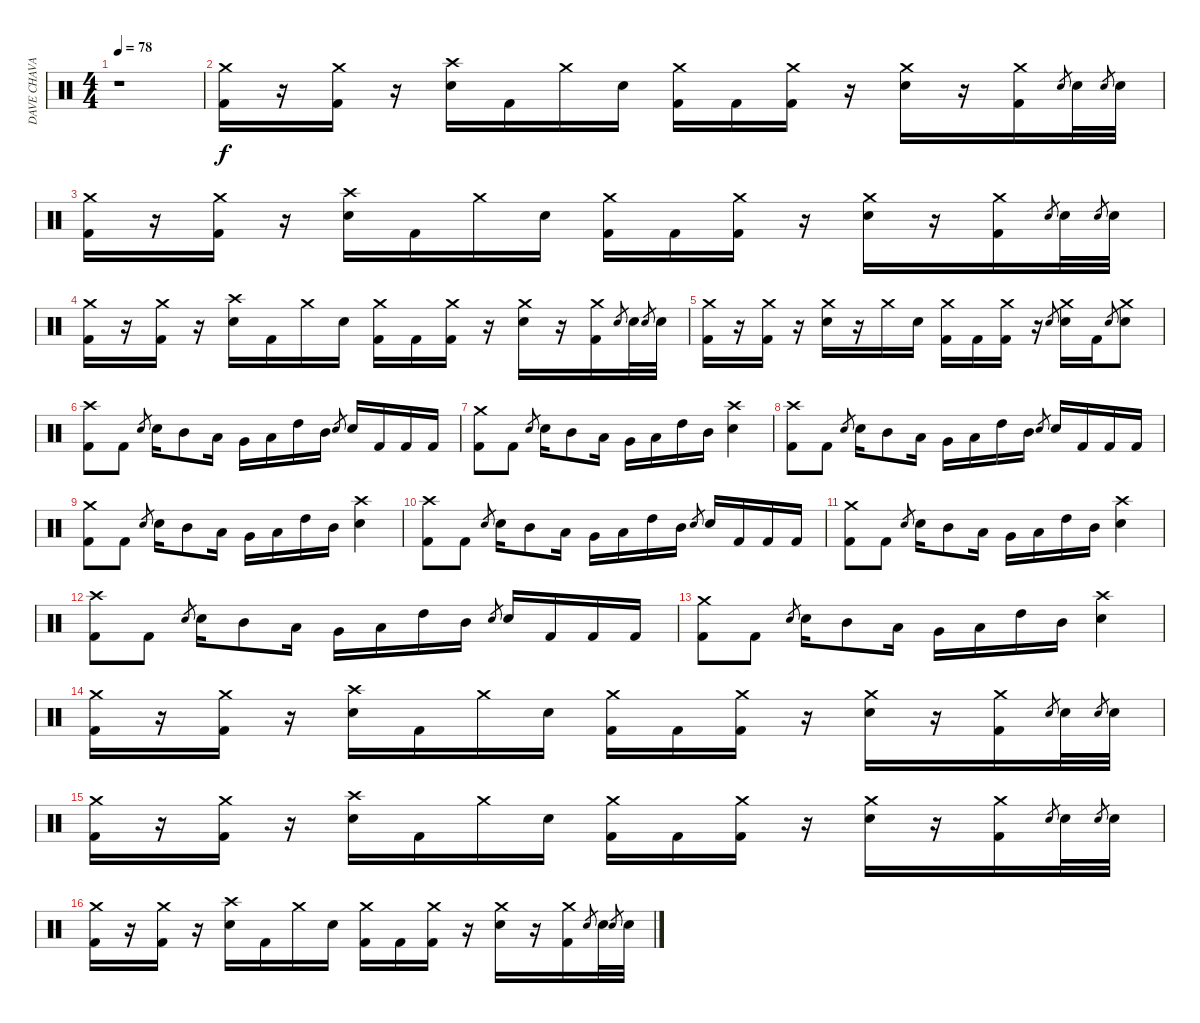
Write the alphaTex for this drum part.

\track ("DAVE CHAVARRI" "DAVE CHAVA") {instrument percussion}
\staff {score}
\articulation defaults
\ts (4 4)
\tempo 78
\clef neutral
\ks c
r.1{dy f} |
("Crash medium (hit)" "Kick (hit) 2").16 r.16 ("Crash medium (hit)" "Kick (hit) 2").16 r.16 ("Crash high (hit)" "Electric Snare (hit)").16 "Kick (hit) 2".16 "Crash medium (hit)".16 "Electric Snare (hit)".16 ("Crash medium (hit)" "Kick (hit) 2").16 "Kick (hit) 2".16 ("Crash medium (hit)" "Kick (hit) 2").16 r.16 ("Crash medium (hit)" "Electric Snare (hit)").16 r.16 ("Crash medium (hit)" "Kick (hit) 2").16 "Electric Snare (hit)".8{gr} "Electric Snare (hit)".32 "Electric Snare (hit)".8{gr} "Electric Snare (hit)".32 |
("Crash medium (hit)" "Kick (hit) 2").16 r.16 ("Crash medium (hit)" "Kick (hit) 2").16 r.16 ("Crash high (hit)" "Electric Snare (hit)").16 "Kick (hit) 2".16 "Crash medium (hit)".16 "Electric Snare (hit)".16 ("Crash medium (hit)" "Kick (hit) 2").16 "Kick (hit) 2".16 ("Crash medium (hit)" "Kick (hit) 2").16 r.16 ("Crash medium (hit)" "Electric Snare (hit)").16 r.16 ("Crash medium (hit)" "Kick (hit) 2").16 "Electric Snare (hit)".8{gr} "Electric Snare (hit)".32 "Electric Snare (hit)".8{gr} "Electric Snare (hit)".32 |
("Crash medium (hit)" "Kick (hit) 2").16 r.16 ("Crash medium (hit)" "Kick (hit) 2").16 r.16 ("Crash high (hit)" "Electric Snare (hit)").16 "Kick (hit) 2".16 "Crash medium (hit)".16 "Electric Snare (hit)".16 ("Crash medium (hit)" "Kick (hit) 2").16 "Kick (hit) 2".16 ("Crash medium (hit)" "Kick (hit) 2").16 r.16 ("Crash medium (hit)" "Electric Snare (hit)").16 r.16 ("Crash medium (hit)" "Kick (hit) 2").16 "Electric Snare (hit)".8{gr} "Electric Snare (hit)".32 "Electric Snare (hit)".8{gr} "Electric Snare (hit)".32 |
("Crash medium (hit)" "Kick (hit) 2").16 r.16 ("Crash medium (hit)" "Kick (hit) 2").16 r.16 ("Crash medium (hit)" "Electric Snare (hit)").16 r.16 "Crash medium (hit)".16 "Electric Snare (hit)".16 ("Crash medium (hit)" "Kick (hit) 2").16 "Kick (hit) 2".16 ("Crash medium (hit)" "Kick (hit) 2").16 r.16 "Electric Snare (hit)".8{gr} ("Crash medium (hit)" "Electric Snare (hit)").16 "Kick (hit) 2".16 "Electric Snare (hit)".8{gr} ("Crash medium (hit)" "Electric Snare (hit)").8 |
("Crash high (hit)" "Kick (hit) 2").8 "Kick (hit) 2".8 "Electric Snare (hit)".8{gr} "Electric Snare (hit)".16 "Mid Tom (hit)".8 "Low Tom (hit)".16 "Very Low Tom (hit)".16 "Low Floor Tom (hit)".16 "High Tom (hit)".16 "Mid Tom (hit)".16 "Electric Snare (hit)".8{gr} "Electric Snare (hit)".16 "Kick (hit) 2".16 "Kick (hit) 2".16 "Kick (hit) 2".16 |
("Crash medium (hit)" "Kick (hit) 2").8 "Kick (hit) 2".8 "Electric Snare (hit)".8{gr} "Electric Snare (hit)".16 "Mid Tom (hit)".8 "Low Tom (hit)".16 "Very Low Tom (hit)".16 "Low Floor Tom (hit)".16 "High Tom (hit)".16 "Mid Tom (hit)".16 ("Crash high (hit)" "Electric Snare (hit)").4 |
("Crash high (hit)" "Kick (hit) 2").8 "Kick (hit) 2".8 "Electric Snare (hit)".8{gr} "Electric Snare (hit)".16 "Mid Tom (hit)".8 "Low Tom (hit)".16 "Very Low Tom (hit)".16 "Low Floor Tom (hit)".16 "High Tom (hit)".16 "Mid Tom (hit)".16 "Electric Snare (hit)".8{gr} "Electric Snare (hit)".16 "Kick (hit) 2".16 "Kick (hit) 2".16 "Kick (hit) 2".16 |
("Crash medium (hit)" "Kick (hit) 2").8 "Kick (hit) 2".8 "Electric Snare (hit)".8{gr} "Electric Snare (hit)".16 "Mid Tom (hit)".8 "Low Tom (hit)".16 "Very Low Tom (hit)".16 "Low Floor Tom (hit)".16 "High Tom (hit)".16 "Mid Tom (hit)".16 ("Crash high (hit)" "Electric Snare (hit)").4 |
("Crash high (hit)" "Kick (hit) 2").8 "Kick (hit) 2".8 "Electric Snare (hit)".8{gr} "Electric Snare (hit)".16 "Mid Tom (hit)".8 "Low Tom (hit)".16 "Very Low Tom (hit)".16 "Low Floor Tom (hit)".16 "High Tom (hit)".16 "Mid Tom (hit)".16 "Electric Snare (hit)".8{gr} "Electric Snare (hit)".16 "Kick (hit) 2".16 "Kick (hit) 2".16 "Kick (hit) 2".16 |
("Crash medium (hit)" "Kick (hit) 2").8 "Kick (hit) 2".8 "Electric Snare (hit)".8{gr} "Electric Snare (hit)".16 "Mid Tom (hit)".8 "Low Tom (hit)".16 "Very Low Tom (hit)".16 "Low Floor Tom (hit)".16 "High Tom (hit)".16 "Mid Tom (hit)".16 ("Crash high (hit)" "Electric Snare (hit)").4 |
("Crash high (hit)" "Kick (hit) 2").8 "Kick (hit) 2".8 "Electric Snare (hit)".8{gr} "Electric Snare (hit)".16 "Mid Tom (hit)".8 "Low Tom (hit)".16 "Very Low Tom (hit)".16 "Low Floor Tom (hit)".16 "High Tom (hit)".16 "Mid Tom (hit)".16 "Electric Snare (hit)".8{gr} "Electric Snare (hit)".16 "Kick (hit) 2".16 "Kick (hit) 2".16 "Kick (hit) 2".16 |
("Crash medium (hit)" "Kick (hit) 2").8 "Kick (hit) 2".8 "Electric Snare (hit)".8{gr} "Electric Snare (hit)".16 "Mid Tom (hit)".8 "Low Tom (hit)".16 "Very Low Tom (hit)".16 "Low Floor Tom (hit)".16 "High Tom (hit)".16 "Mid Tom (hit)".16 ("Crash high (hit)" "Electric Snare (hit)").4 |
("Crash medium (hit)" "Kick (hit) 2").16 r.16 ("Crash medium (hit)" "Kick (hit) 2").16 r.16 ("Crash high (hit)" "Electric Snare (hit)").16 "Kick (hit) 2".16 "Crash medium (hit)".16 "Electric Snare (hit)".16 ("Crash medium (hit)" "Kick (hit) 2").16 "Kick (hit) 2".16 ("Crash medium (hit)" "Kick (hit) 2").16 r.16 ("Crash medium (hit)" "Electric Snare (hit)").16 r.16 ("Crash medium (hit)" "Kick (hit) 2").16 "Electric Snare (hit)".8{gr} "Electric Snare (hit)".32 "Electric Snare (hit)".8{gr} "Electric Snare (hit)".32 |
("Crash medium (hit)" "Kick (hit) 2").16 r.16 ("Crash medium (hit)" "Kick (hit) 2").16 r.16 ("Crash high (hit)" "Electric Snare (hit)").16 "Kick (hit) 2".16 "Crash medium (hit)".16 "Electric Snare (hit)".16 ("Crash medium (hit)" "Kick (hit) 2").16 "Kick (hit) 2".16 ("Crash medium (hit)" "Kick (hit) 2").16 r.16 ("Crash medium (hit)" "Electric Snare (hit)").16 r.16 ("Crash medium (hit)" "Kick (hit) 2").16 "Electric Snare (hit)".8{gr} "Electric Snare (hit)".32 "Electric Snare (hit)".8{gr} "Electric Snare (hit)".32 |
("Crash medium (hit)" "Kick (hit) 2").16 r.16 ("Crash medium (hit)" "Kick (hit) 2").16 r.16 ("Crash high (hit)" "Electric Snare (hit)").16 "Kick (hit) 2".16 "Crash medium (hit)".16 "Electric Snare (hit)".16 ("Crash medium (hit)" "Kick (hit) 2").16 "Kick (hit) 2".16 ("Crash medium (hit)" "Kick (hit) 2").16 r.16 ("Crash medium (hit)" "Electric Snare (hit)").16 r.16 ("Crash medium (hit)" "Kick (hit) 2").16 "Electric Snare (hit)".8{gr} "Electric Snare (hit)".32 "Electric Snare (hit)".8{gr} "Electric Snare (hit)".32
